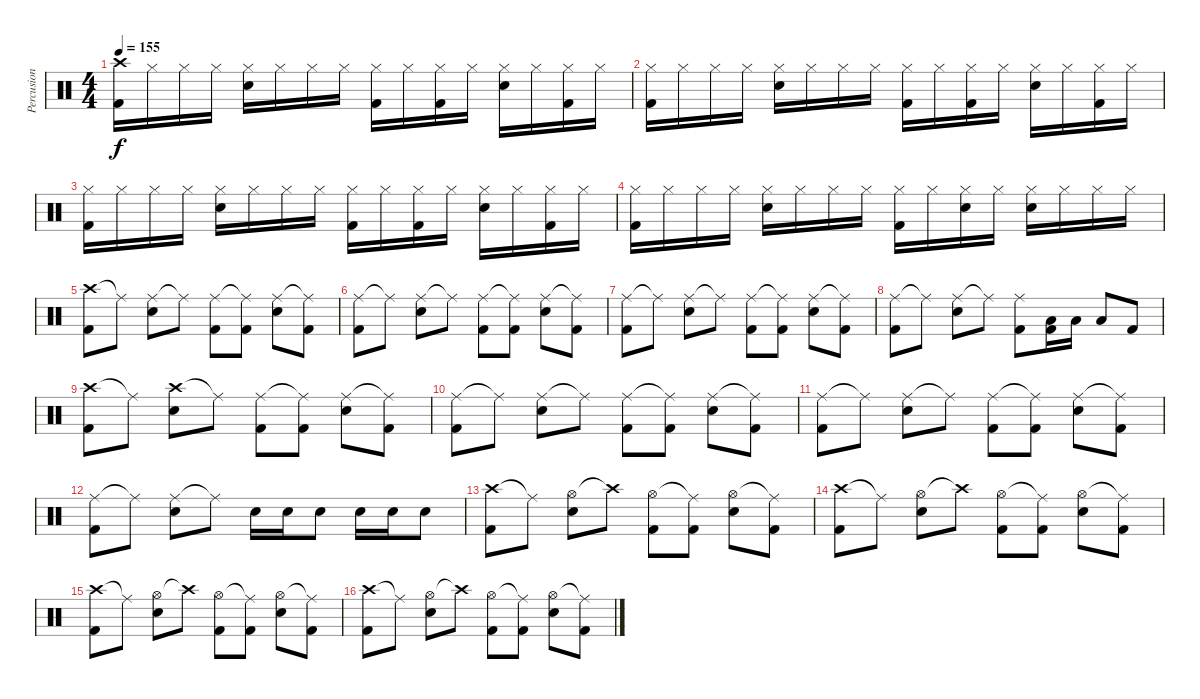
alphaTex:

\track ("Percusion" "Percusion") {instrument percussion}
\staff {score}
\articulation defaults
\ts (4 4)
\tempo 155
\clef neutral
\ks c
("Crash high (hit)" "Kick (hit) 2").16{dy f} "Hi-Hat (closed)".16 "Hi-Hat (closed)".16 "Hi-Hat (closed)".16 ("Hi-Hat (closed)" "Electric Snare (hit)").16 "Hi-Hat (closed)".16 "Hi-Hat (closed)".16 "Hi-Hat (closed)".16 ("Hi-Hat (closed)" "Kick (hit) 2").16 "Hi-Hat (closed)".16 ("Hi-Hat (closed)" "Kick (hit) 2").16 "Hi-Hat (closed)".16 ("Hi-Hat (closed)" "Electric Snare (hit)").16 "Hi-Hat (closed)".16 ("Hi-Hat (closed)" "Kick (hit) 2").16 "Hi-Hat (closed)".16 |
("Hi-Hat (closed)" "Kick (hit) 2").16 "Hi-Hat (closed)".16 "Hi-Hat (closed)".16 "Hi-Hat (closed)".16 ("Hi-Hat (closed)" "Electric Snare (hit)").16 "Hi-Hat (closed)".16 "Hi-Hat (closed)".16 "Hi-Hat (closed)".16 ("Hi-Hat (closed)" "Kick (hit) 2").16 "Hi-Hat (closed)".16 ("Hi-Hat (closed)" "Kick (hit) 2").16 "Hi-Hat (closed)".16 ("Hi-Hat (closed)" "Electric Snare (hit)").16 "Hi-Hat (closed)".16 ("Hi-Hat (closed)" "Kick (hit) 2").16 "Hi-Hat (closed)".16 |
("Hi-Hat (closed)" "Kick (hit) 2").16 "Hi-Hat (closed)".16 "Hi-Hat (closed)".16 "Hi-Hat (closed)".16 ("Hi-Hat (closed)" "Electric Snare (hit)").16 "Hi-Hat (closed)".16 "Hi-Hat (closed)".16 "Hi-Hat (closed)".16 ("Hi-Hat (closed)" "Kick (hit) 2").16 "Hi-Hat (closed)".16 ("Hi-Hat (closed)" "Kick (hit) 2").16 "Hi-Hat (closed)".16 ("Hi-Hat (closed)" "Electric Snare (hit)").16 "Hi-Hat (closed)".16 ("Hi-Hat (closed)" "Kick (hit) 2").16 "Hi-Hat (closed)".16 |
("Hi-Hat (closed)" "Kick (hit) 2").16 "Hi-Hat (closed)".16 "Hi-Hat (closed)".16 "Hi-Hat (closed)".16 ("Hi-Hat (closed)" "Electric Snare (hit)").16 "Hi-Hat (closed)".16 "Hi-Hat (closed)".16 "Hi-Hat (closed)".16 ("Hi-Hat (closed)" "Kick (hit) 2").16 "Hi-Hat (closed)".16 ("Hi-Hat (closed)" "Electric Snare (hit)").16 "Hi-Hat (closed)".16 ("Hi-Hat (closed)" "Electric Snare (hit)").16 "Hi-Hat (closed)".16 "Hi-Hat (closed)".16 "Hi-Hat (closed)".16 |
("Crash high (hit)" "Kick (hit) 2").8 "Ride (middle)"{t}.8 ("Ride (middle)" "Electric Snare (hit)").8 "Ride (middle)"{t}.8 ("Ride (middle)" "Kick (hit) 2").8 ("Ride (middle)"{t} "Kick (hit) 2").8 ("Ride (middle)" "Electric Snare (hit)").8 ("Ride (middle)"{t} "Kick (hit) 2").8 |
("Ride (middle)" "Kick (hit) 2").8 "Ride (middle)"{t}.8 ("Ride (middle)" "Electric Snare (hit)").8 "Ride (middle)"{t}.8 ("Ride (middle)" "Kick (hit) 2").8 ("Ride (middle)"{t} "Kick (hit) 2").8 ("Ride (middle)" "Electric Snare (hit)").8 ("Ride (middle)"{t} "Kick (hit) 2").8 |
("Ride (middle)" "Kick (hit) 2").8 "Ride (middle)"{t}.8 ("Ride (middle)" "Electric Snare (hit)").8 "Ride (middle)"{t}.8 ("Ride (middle)" "Kick (hit) 2").8 ("Ride (middle)"{t} "Kick (hit) 2").8 ("Ride (middle)" "Electric Snare (hit)").8 ("Ride (middle)"{t} "Kick (hit) 2").8 |
("Ride (middle)" "Kick (hit) 2").8 "Ride (middle)"{t}.8 ("Ride (middle)" "Electric Snare (hit)").8 "Ride (middle)"{t}.8 ("Ride (middle)" "Kick (hit) 2").8 ("Low Tom (hit)" "Kick (hit) 2").16 "Low Tom (hit)".16 "Low Tom (hit)".8 "Kick (hit) 2".8 |
("Crash high (hit)" "Kick (hit) 2").8 "Ride (middle)"{t}.8 ("Crash high (hit)" "Electric Snare (hit)").8 "Ride (middle)"{t}.8 ("Ride (middle)" "Kick (hit) 2").8 ("Ride (middle)"{t} "Kick (hit) 2").8 ("Ride (middle)" "Electric Snare (hit)").8 ("Ride (middle)"{t} "Kick (hit) 2").8 |
("Ride (middle)" "Kick (hit) 2").8 "Ride (middle)"{t}.8 ("Ride (middle)" "Electric Snare (hit)").8 "Ride (middle)"{t}.8 ("Ride (middle)" "Kick (hit) 2").8 ("Ride (middle)"{t} "Kick (hit) 2").8 ("Ride (middle)" "Electric Snare (hit)").8 ("Ride (middle)"{t} "Kick (hit) 2").8 |
("Ride (middle)" "Kick (hit) 2").8 "Ride (middle)"{t}.8 ("Ride (middle)" "Electric Snare (hit)").8 "Ride (middle)"{t}.8 ("Ride (middle)" "Kick (hit) 2").8 ("Ride (middle)"{t} "Kick (hit) 2").8 ("Ride (middle)" "Electric Snare (hit)").8 ("Ride (middle)"{t} "Kick (hit) 2").8 |
("Ride (middle)" "Kick (hit) 2").8 "Ride (middle)"{t}.8 ("Ride (middle)" "Electric Snare (hit)").8 "Ride (middle)"{t}.8 "Electric Snare (hit)".16 "Electric Snare (hit)".16 "Electric Snare (hit)".8 "Electric Snare (hit)".16 "Electric Snare (hit)".16 "Electric Snare (hit)".8 |
("Crash high (hit)" "Kick (hit) 2").8 "Ride (middle)"{t}.8 ("Hi-Hat (open)" "Electric Snare (hit)").8 "Crash high (hit)"{t}.8 ("Hi-Hat (open)" "Kick (hit) 2").8 ("Ride (middle)"{t} "Kick (hit) 2").8 ("Hi-Hat (open)" "Electric Snare (hit)").8 ("Ride (middle)"{t} "Kick (hit) 2").8 |
("Crash high (hit)" "Kick (hit) 2").8 "Ride (middle)"{t}.8 ("Hi-Hat (open)" "Electric Snare (hit)").8 "Crash high (hit)"{t}.8 ("Hi-Hat (open)" "Kick (hit) 2").8 ("Ride (middle)"{t} "Kick (hit) 2").8 ("Hi-Hat (open)" "Electric Snare (hit)").8 ("Ride (middle)"{t} "Kick (hit) 2").8 |
("Crash high (hit)" "Kick (hit) 2").8 "Ride (middle)"{t}.8 ("Hi-Hat (open)" "Electric Snare (hit)").8 "Crash high (hit)"{t}.8 ("Hi-Hat (open)" "Kick (hit) 2").8 ("Ride (middle)"{t} "Kick (hit) 2").8 ("Hi-Hat (open)" "Electric Snare (hit)").8 ("Ride (middle)"{t} "Kick (hit) 2").8 |
("Crash high (hit)" "Kick (hit) 2").8 "Ride (middle)"{t}.8 ("Hi-Hat (open)" "Electric Snare (hit)").8 "Crash high (hit)"{t}.8 ("Hi-Hat (open)" "Kick (hit) 2").8 ("Ride (middle)"{t} "Kick (hit) 2").8 ("Hi-Hat (open)" "Electric Snare (hit)").8 ("Ride (middle)"{t} "Kick (hit) 2").8
